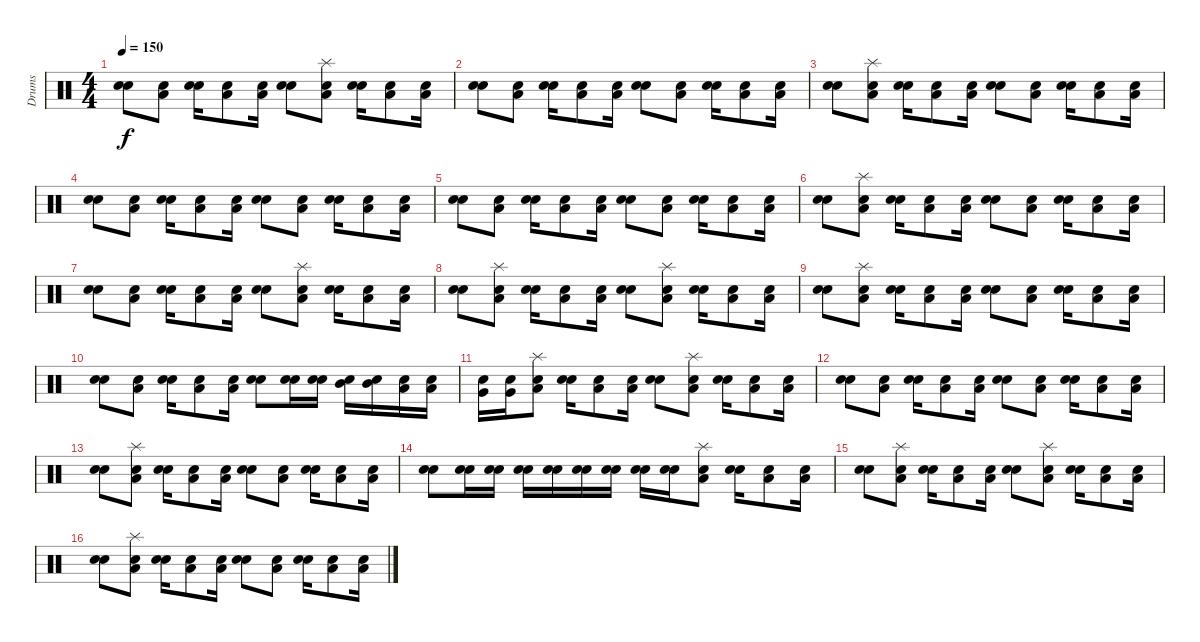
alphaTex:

\track ("Drums" "Drums") {instrument percussion}
\staff {score}
\articulation defaults
\ts (4 4)
\tempo 150
\clef neutral
\ks c
("Snare (hit)" "Electric Snare (hit)").8{dy f} ("Snare (hit)" "Low Floor Tom (hit)").8 ("Snare (hit)" "Electric Snare (hit)").16 ("Snare (hit)" "Low Floor Tom (hit)").8 ("Snare (hit)" "Low Floor Tom (hit)").16 ("Snare (hit)" "Electric Snare (hit)").8 ("Snare (hit)" "Low Floor Tom (hit)" "Splash (hit)").8 ("Snare (hit)" "Electric Snare (hit)").16 ("Snare (hit)" "Low Floor Tom (hit)").8 ("Snare (hit)" "Low Floor Tom (hit)").16 |
("Snare (hit)" "Electric Snare (hit)").8 ("Snare (hit)" "Low Floor Tom (hit)").8 ("Snare (hit)" "Electric Snare (hit)").16 ("Snare (hit)" "Low Floor Tom (hit)").8 ("Snare (hit)" "Low Floor Tom (hit)").16 ("Snare (hit)" "Electric Snare (hit)").8 ("Snare (hit)" "Low Floor Tom (hit)").8 ("Snare (hit)" "Electric Snare (hit)").16 ("Snare (hit)" "Low Floor Tom (hit)").8 ("Snare (hit)" "Low Floor Tom (hit)").16 |
("Snare (hit)" "Electric Snare (hit)").8 ("Snare (hit)" "Low Floor Tom (hit)" "Splash (hit)").8 ("Snare (hit)" "Electric Snare (hit)").16 ("Snare (hit)" "Low Floor Tom (hit)").8 ("Snare (hit)" "Low Floor Tom (hit)").16 ("Snare (hit)" "Electric Snare (hit)").8 ("Snare (hit)" "Low Floor Tom (hit)").8 ("Snare (hit)" "Electric Snare (hit)").16 ("Snare (hit)" "Low Floor Tom (hit)").8 ("Snare (hit)" "Low Floor Tom (hit)").16 |
("Snare (hit)" "Electric Snare (hit)").8 ("Snare (hit)" "Low Floor Tom (hit)").8 ("Snare (hit)" "Electric Snare (hit)").16 ("Snare (hit)" "Low Floor Tom (hit)").8 ("Snare (hit)" "Low Floor Tom (hit)").16 ("Snare (hit)" "Electric Snare (hit)").8 ("Snare (hit)" "Low Floor Tom (hit)").8 ("Snare (hit)" "Electric Snare (hit)").16 ("Snare (hit)" "Low Floor Tom (hit)").8 ("Snare (hit)" "Low Floor Tom (hit)").16 |
("Snare (hit)" "Electric Snare (hit)").8 ("Snare (hit)" "Low Floor Tom (hit)").8 ("Snare (hit)" "Electric Snare (hit)").16 ("Snare (hit)" "Low Floor Tom (hit)").8 ("Snare (hit)" "Low Floor Tom (hit)").16 ("Snare (hit)" "Electric Snare (hit)").8 ("Snare (hit)" "Low Floor Tom (hit)").8 ("Snare (hit)" "Electric Snare (hit)").16 ("Snare (hit)" "Low Floor Tom (hit)").8 ("Snare (hit)" "Low Floor Tom (hit)").16 |
("Snare (hit)" "Electric Snare (hit)").8 ("Snare (hit)" "Low Floor Tom (hit)" "Splash (hit)").8 ("Snare (hit)" "Electric Snare (hit)").16 ("Snare (hit)" "Low Floor Tom (hit)").8 ("Snare (hit)" "Low Floor Tom (hit)").16 ("Snare (hit)" "Electric Snare (hit)").8 ("Snare (hit)" "Low Floor Tom (hit)").8 ("Snare (hit)" "Electric Snare (hit)").16 ("Snare (hit)" "Low Floor Tom (hit)").8 ("Snare (hit)" "Low Floor Tom (hit)").16 |
("Snare (hit)" "Electric Snare (hit)").8 ("Snare (hit)" "Low Floor Tom (hit)").8 ("Snare (hit)" "Electric Snare (hit)").16 ("Snare (hit)" "Low Floor Tom (hit)").8 ("Snare (hit)" "Low Floor Tom (hit)").16 ("Snare (hit)" "Electric Snare (hit)").8 ("Snare (hit)" "Low Floor Tom (hit)" "Splash (hit)").8 ("Snare (hit)" "Electric Snare (hit)").16 ("Snare (hit)" "Low Floor Tom (hit)").8 ("Snare (hit)" "Low Floor Tom (hit)").16 |
("Snare (hit)" "Electric Snare (hit)").8 ("Snare (hit)" "Low Floor Tom (hit)" "Splash (hit)").8 ("Snare (hit)" "Electric Snare (hit)").16 ("Snare (hit)" "Low Floor Tom (hit)").8 ("Snare (hit)" "Low Floor Tom (hit)").16 ("Snare (hit)" "Electric Snare (hit)").8 ("Snare (hit)" "Low Floor Tom (hit)" "Splash (hit)").8 ("Snare (hit)" "Electric Snare (hit)").16 ("Snare (hit)" "Low Floor Tom (hit)").8 ("Snare (hit)" "Low Floor Tom (hit)").16 |
("Snare (hit)" "Electric Snare (hit)").8 ("Snare (hit)" "Low Floor Tom (hit)" "Splash (hit)").8 ("Snare (hit)" "Electric Snare (hit)").16 ("Snare (hit)" "Low Floor Tom (hit)").8 ("Snare (hit)" "Low Floor Tom (hit)").16 ("Snare (hit)" "Electric Snare (hit)").8 ("Snare (hit)" "Low Floor Tom (hit)").8 ("Snare (hit)" "Electric Snare (hit)").16 ("Snare (hit)" "Low Floor Tom (hit)").8 ("Snare (hit)" "Low Floor Tom (hit)").16 |
("Snare (hit)" "Electric Snare (hit)").8 ("Snare (hit)" "Low Floor Tom (hit)").8 ("Snare (hit)" "Electric Snare (hit)").16 ("Snare (hit)" "Low Floor Tom (hit)").8 ("Snare (hit)" "Low Floor Tom (hit)").16 ("Snare (hit)" "Electric Snare (hit)").8 ("Snare (hit)" "Electric Snare (hit)").16 ("Snare (hit)" "Electric Snare (hit)").16 ("Snare (hit)" "Mid Tom (hit)").16 ("Snare (hit)" "Mid Tom (hit)").16 ("Snare (hit)" "Low Tom (hit)").16 ("Snare (hit)" "Low Tom (hit)").16 |
("Snare (hit)" "Very Low Tom (hit)").16 ("Snare (hit)" "Very Low Tom (hit)").16 ("Snare (hit)" "Low Floor Tom (hit)" "Splash (hit)").8 ("Snare (hit)" "Electric Snare (hit)").16 ("Snare (hit)" "Low Floor Tom (hit)").8 ("Snare (hit)" "Low Floor Tom (hit)").16 ("Snare (hit)" "Electric Snare (hit)").8 ("Snare (hit)" "Low Floor Tom (hit)" "Splash (hit)").8 ("Snare (hit)" "Electric Snare (hit)").16 ("Snare (hit)" "Low Floor Tom (hit)").8 ("Snare (hit)" "Low Floor Tom (hit)").16 |
("Snare (hit)" "Electric Snare (hit)").8 ("Snare (hit)" "Low Floor Tom (hit)").8 ("Snare (hit)" "Electric Snare (hit)").16 ("Snare (hit)" "Low Floor Tom (hit)").8 ("Snare (hit)" "Low Floor Tom (hit)").16 ("Snare (hit)" "Electric Snare (hit)").8 ("Snare (hit)" "Low Floor Tom (hit)").8 ("Snare (hit)" "Electric Snare (hit)").16 ("Snare (hit)" "Low Floor Tom (hit)").8 ("Snare (hit)" "Low Floor Tom (hit)").16 |
("Snare (hit)" "Electric Snare (hit)").8 ("Snare (hit)" "Low Floor Tom (hit)" "Splash (hit)").8 ("Snare (hit)" "Electric Snare (hit)").16 ("Snare (hit)" "Low Floor Tom (hit)").8 ("Snare (hit)" "Low Floor Tom (hit)").16 ("Snare (hit)" "Electric Snare (hit)").8 ("Snare (hit)" "Low Floor Tom (hit)").8 ("Snare (hit)" "Electric Snare (hit)").16 ("Snare (hit)" "Low Floor Tom (hit)").8 ("Snare (hit)" "Low Floor Tom (hit)").16 |
("Snare (hit)" "Electric Snare (hit)").8 ("Snare (hit)" "Electric Snare (hit)").16 ("Snare (hit)" "Electric Snare (hit)").16 ("Snare (hit)" "Electric Snare (hit)").16 ("Snare (hit)" "Electric Snare (hit)").16 ("Snare (hit)" "Electric Snare (hit)").16 ("Snare (hit)" "Electric Snare (hit)").16 ("Snare (hit)" "Electric Snare (hit)").16 ("Snare (hit)" "Electric Snare (hit)").16 ("Snare (hit)" "Low Floor Tom (hit)" "Splash (hit)").8 ("Snare (hit)" "Electric Snare (hit)").16 ("Snare (hit)" "Low Floor Tom (hit)").8 ("Snare (hit)" "Low Floor Tom (hit)").16 |
("Snare (hit)" "Electric Snare (hit)").8 ("Snare (hit)" "Low Floor Tom (hit)" "Splash (hit)").8 ("Snare (hit)" "Electric Snare (hit)").16 ("Snare (hit)" "Low Floor Tom (hit)").8 ("Snare (hit)" "Low Floor Tom (hit)").16 ("Snare (hit)" "Electric Snare (hit)").8 ("Snare (hit)" "Low Floor Tom (hit)" "Splash (hit)").8 ("Snare (hit)" "Electric Snare (hit)").16 ("Snare (hit)" "Low Floor Tom (hit)").8 ("Snare (hit)" "Low Floor Tom (hit)").16 |
("Snare (hit)" "Electric Snare (hit)").8 ("Snare (hit)" "Low Floor Tom (hit)" "Splash (hit)").8 ("Snare (hit)" "Electric Snare (hit)").16 ("Snare (hit)" "Low Floor Tom (hit)").8 ("Snare (hit)" "Low Floor Tom (hit)").16 ("Snare (hit)" "Electric Snare (hit)").8 ("Snare (hit)" "Low Floor Tom (hit)").8 ("Snare (hit)" "Electric Snare (hit)").16 ("Snare (hit)" "Low Floor Tom (hit)").8 ("Snare (hit)" "Low Floor Tom (hit)").16
